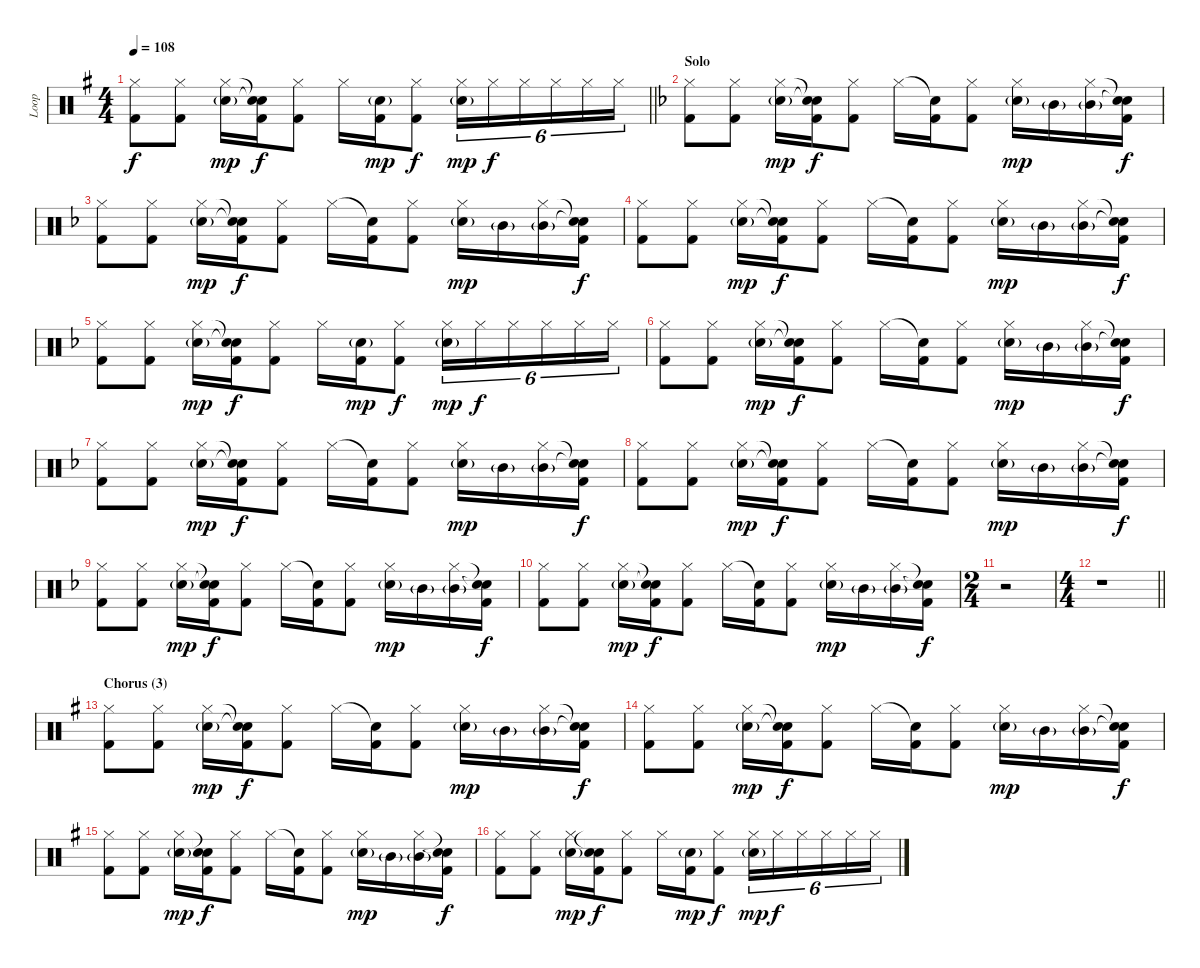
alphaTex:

\track ("Loop" "Loop") {instrument percussion}
\staff {score}
\articulation defaults
\ts (4 4)
\tempo 108
\clef neutral
\barLineRight lightlight
\ks eminor
("Hi-Hat (closed)" "Kick (hit) 2").8{dy f} ("Hi-Hat (closed)" "Kick (hit) 2").8 ("Hi-Hat (closed)" "Electric Snare (hit)"{g}).16{dy mp} ("Snare (hit)"{t} "Snare (hit)"{t} "Kick (hit) 2").16{dy f} ("Hi-Hat (closed)" "Kick (hit) 2").8 "Hi-Hat (closed)".16 ("Electric Snare (hit)"{g} "Kick (hit) 2").16{dy mp} ("Hi-Hat (closed)" "Kick (hit) 2").8{dy f} ("Hi-Hat (closed)" "Electric Snare (hit)"{g}).16{tu (6 4) dy mp} "Hi-Hat (closed)".16{tu (6 4) dy f} "Hi-Hat (closed)".16{tu (6 4)} "Hi-Hat (closed)".16{tu (6 4)} "Hi-Hat (closed)".16{tu (6 4)} "Hi-Hat (closed)".16{tu (6 4)} |
\section ("" "Solo")
\ks dminor
("Hi-Hat (closed)" "Kick (hit) 2").8 ("Hi-Hat (closed)" "Kick (hit) 2").8 ("Hi-Hat (closed)" "Electric Snare (hit)"{g}).16{dy mp} ("Snare (hit)"{t} "Snare (hit)"{t} "Kick (hit) 2").16{dy f} ("Hi-Hat (closed)" "Kick (hit) 2").8 "Hi-Hat (closed)".16 ("Snare (hit)"{t} "Kick (hit) 2").16 ("Hi-Hat (closed)" "Kick (hit) 2").8 ("Hi-Hat (closed)" "Electric Snare (hit)"{g}).16{dy mp} "Mid Tom (hit)"{g}.16 ("Hi-Hat (closed)" "Mid Tom (hit)"{g}).16 ("Snare (hit)"{t} "Snare (hit)"{t} "Kick (hit) 2").16{dy f} |
("Hi-Hat (closed)" "Kick (hit) 2").8 ("Hi-Hat (closed)" "Kick (hit) 2").8 ("Hi-Hat (closed)" "Electric Snare (hit)"{g}).16{dy mp} ("Snare (hit)"{t} "Snare (hit)"{t} "Kick (hit) 2").16{dy f} ("Hi-Hat (closed)" "Kick (hit) 2").8 "Hi-Hat (closed)".16 ("Snare (hit)"{t} "Kick (hit) 2").16 ("Hi-Hat (closed)" "Kick (hit) 2").8 ("Hi-Hat (closed)" "Electric Snare (hit)"{g}).16{dy mp} "Mid Tom (hit)"{g}.16 ("Hi-Hat (closed)" "Mid Tom (hit)"{g}).16 ("Snare (hit)"{t} "Snare (hit)"{t} "Kick (hit) 2").16{dy f} |
("Hi-Hat (closed)" "Kick (hit) 2").8 ("Hi-Hat (closed)" "Kick (hit) 2").8 ("Hi-Hat (closed)" "Electric Snare (hit)"{g}).16{dy mp} ("Snare (hit)"{t} "Snare (hit)"{t} "Kick (hit) 2").16{dy f} ("Hi-Hat (closed)" "Kick (hit) 2").8 "Hi-Hat (closed)".16 ("Snare (hit)"{t} "Kick (hit) 2").16 ("Hi-Hat (closed)" "Kick (hit) 2").8 ("Hi-Hat (closed)" "Electric Snare (hit)"{g}).16{dy mp} "Mid Tom (hit)"{g}.16 ("Hi-Hat (closed)" "Mid Tom (hit)"{g}).16 ("Snare (hit)"{t} "Snare (hit)"{t} "Kick (hit) 2").16{dy f} |
("Hi-Hat (closed)" "Kick (hit) 2").8 ("Hi-Hat (closed)" "Kick (hit) 2").8 ("Hi-Hat (closed)" "Electric Snare (hit)"{g}).16{dy mp} ("Snare (hit)"{t} "Snare (hit)"{t} "Kick (hit) 2").16{dy f} ("Hi-Hat (closed)" "Kick (hit) 2").8 "Hi-Hat (closed)".16 ("Electric Snare (hit)"{g} "Kick (hit) 2").16{dy mp} ("Hi-Hat (closed)" "Kick (hit) 2").8{dy f} ("Hi-Hat (closed)" "Electric Snare (hit)"{g}).16{tu (6 4) dy mp} "Hi-Hat (closed)".16{tu (6 4) dy f} "Hi-Hat (closed)".16{tu (6 4)} "Hi-Hat (closed)".16{tu (6 4)} "Hi-Hat (closed)".16{tu (6 4)} "Hi-Hat (closed)".16{tu (6 4)} |
("Hi-Hat (closed)" "Kick (hit) 2").8 ("Hi-Hat (closed)" "Kick (hit) 2").8 ("Hi-Hat (closed)" "Electric Snare (hit)"{g}).16{dy mp} ("Snare (hit)"{t} "Snare (hit)"{t} "Kick (hit) 2").16{dy f} ("Hi-Hat (closed)" "Kick (hit) 2").8 "Hi-Hat (closed)".16 ("Snare (hit)"{t} "Kick (hit) 2").16 ("Hi-Hat (closed)" "Kick (hit) 2").8 ("Hi-Hat (closed)" "Electric Snare (hit)"{g}).16{dy mp} "Mid Tom (hit)"{g}.16 ("Hi-Hat (closed)" "Mid Tom (hit)"{g}).16 ("Snare (hit)"{t} "Snare (hit)"{t} "Kick (hit) 2").16{dy f} |
("Hi-Hat (closed)" "Kick (hit) 2").8 ("Hi-Hat (closed)" "Kick (hit) 2").8 ("Hi-Hat (closed)" "Electric Snare (hit)"{g}).16{dy mp} ("Snare (hit)"{t} "Snare (hit)"{t} "Kick (hit) 2").16{dy f} ("Hi-Hat (closed)" "Kick (hit) 2").8 "Hi-Hat (closed)".16 ("Snare (hit)"{t} "Kick (hit) 2").16 ("Hi-Hat (closed)" "Kick (hit) 2").8 ("Hi-Hat (closed)" "Electric Snare (hit)"{g}).16{dy mp} "Mid Tom (hit)"{g}.16 ("Hi-Hat (closed)" "Mid Tom (hit)"{g}).16 ("Snare (hit)"{t} "Snare (hit)"{t} "Kick (hit) 2").16{dy f} |
("Hi-Hat (closed)" "Kick (hit) 2").8 ("Hi-Hat (closed)" "Kick (hit) 2").8 ("Hi-Hat (closed)" "Electric Snare (hit)"{g}).16{dy mp} ("Snare (hit)"{t} "Snare (hit)"{t} "Kick (hit) 2").16{dy f} ("Hi-Hat (closed)" "Kick (hit) 2").8 "Hi-Hat (closed)".16 ("Snare (hit)"{t} "Kick (hit) 2").16 ("Hi-Hat (closed)" "Kick (hit) 2").8 ("Hi-Hat (closed)" "Electric Snare (hit)"{g}).16{dy mp} "Mid Tom (hit)"{g}.16 ("Hi-Hat (closed)" "Mid Tom (hit)"{g}).16 ("Snare (hit)"{t} "Snare (hit)"{t} "Kick (hit) 2").16{dy f} |
("Hi-Hat (closed)" "Kick (hit) 2").8 ("Hi-Hat (closed)" "Kick (hit) 2").8 ("Hi-Hat (closed)" "Electric Snare (hit)"{g}).16{dy mp} ("Snare (hit)"{t} "Snare (hit)"{t} "Kick (hit) 2").16{dy f} ("Hi-Hat (closed)" "Kick (hit) 2").8 "Hi-Hat (closed)".16 ("Snare (hit)"{t} "Kick (hit) 2").16 ("Hi-Hat (closed)" "Kick (hit) 2").8 ("Hi-Hat (closed)" "Electric Snare (hit)"{g}).16{dy mp} "Mid Tom (hit)"{g}.16 ("Hi-Hat (closed)" "Mid Tom (hit)"{g}).16 ("Snare (hit)"{t} "Snare (hit)"{t} "Kick (hit) 2").16{dy f} |
("Hi-Hat (closed)" "Kick (hit) 2").8 ("Hi-Hat (closed)" "Kick (hit) 2").8 ("Hi-Hat (closed)" "Electric Snare (hit)"{g}).16{dy mp} ("Snare (hit)"{t} "Snare (hit)"{t} "Kick (hit) 2").16{dy f} ("Hi-Hat (closed)" "Kick (hit) 2").8 "Hi-Hat (closed)".16 ("Snare (hit)"{t} "Kick (hit) 2").16 ("Hi-Hat (closed)" "Kick (hit) 2").8 ("Hi-Hat (closed)" "Electric Snare (hit)"{g}).16{dy mp} "Mid Tom (hit)"{g}.16 ("Hi-Hat (closed)" "Mid Tom (hit)"{g}).16 ("Snare (hit)"{t} "Snare (hit)"{t} "Kick (hit) 2").16{dy f} |
\ts (2 4)
r.2 |
\ts (4 4)
\barLineRight lightlight
r.1 |
\section ("" "Chorus (3)")
\ks eminor
("Hi-Hat (closed)" "Kick (hit) 2").8 ("Hi-Hat (closed)" "Kick (hit) 2").8 ("Hi-Hat (closed)" "Electric Snare (hit)"{g}).16{dy mp} ("Snare (hit)"{t} "Snare (hit)"{t} "Kick (hit) 2").16{dy f} ("Hi-Hat (closed)" "Kick (hit) 2").8 "Hi-Hat (closed)".16 ("Snare (hit)"{t} "Kick (hit) 2").16 ("Hi-Hat (closed)" "Kick (hit) 2").8 ("Hi-Hat (closed)" "Electric Snare (hit)"{g}).16{dy mp} "Mid Tom (hit)"{g}.16 ("Hi-Hat (closed)" "Mid Tom (hit)"{g}).16 ("Snare (hit)"{t} "Snare (hit)"{t} "Kick (hit) 2").16{dy f} |
("Hi-Hat (closed)" "Kick (hit) 2").8 ("Hi-Hat (closed)" "Kick (hit) 2").8 ("Hi-Hat (closed)" "Electric Snare (hit)"{g}).16{dy mp} ("Snare (hit)"{t} "Snare (hit)"{t} "Kick (hit) 2").16{dy f} ("Hi-Hat (closed)" "Kick (hit) 2").8 "Hi-Hat (closed)".16 ("Snare (hit)"{t} "Kick (hit) 2").16 ("Hi-Hat (closed)" "Kick (hit) 2").8 ("Hi-Hat (closed)" "Electric Snare (hit)"{g}).16{dy mp} "Mid Tom (hit)"{g}.16 ("Hi-Hat (closed)" "Mid Tom (hit)"{g}).16 ("Snare (hit)"{t} "Snare (hit)"{t} "Kick (hit) 2").16{dy f} |
("Hi-Hat (closed)" "Kick (hit) 2").8 ("Hi-Hat (closed)" "Kick (hit) 2").8 ("Hi-Hat (closed)" "Electric Snare (hit)"{g}).16{dy mp} ("Snare (hit)"{t} "Snare (hit)"{t} "Kick (hit) 2").16{dy f} ("Hi-Hat (closed)" "Kick (hit) 2").8 "Hi-Hat (closed)".16 ("Snare (hit)"{t} "Kick (hit) 2").16 ("Hi-Hat (closed)" "Kick (hit) 2").8 ("Hi-Hat (closed)" "Electric Snare (hit)"{g}).16{dy mp} "Mid Tom (hit)"{g}.16 ("Hi-Hat (closed)" "Mid Tom (hit)"{g}).16 ("Snare (hit)"{t} "Snare (hit)"{t} "Kick (hit) 2").16{dy f} |
("Hi-Hat (closed)" "Kick (hit) 2").8 ("Hi-Hat (closed)" "Kick (hit) 2").8 ("Hi-Hat (closed)" "Electric Snare (hit)"{g}).16{dy mp} ("Snare (hit)"{t} "Snare (hit)"{t} "Kick (hit) 2").16{dy f} ("Hi-Hat (closed)" "Kick (hit) 2").8 "Hi-Hat (closed)".16 ("Electric Snare (hit)"{g} "Kick (hit) 2").16{dy mp} ("Hi-Hat (closed)" "Kick (hit) 2").8{dy f} ("Hi-Hat (closed)" "Electric Snare (hit)"{g}).16{tu (6 4) dy mp} "Hi-Hat (closed)".16{tu (6 4) dy f} "Hi-Hat (closed)".16{tu (6 4)} "Hi-Hat (closed)".16{tu (6 4)} "Hi-Hat (closed)".16{tu (6 4)} "Hi-Hat (closed)".16{tu (6 4)}
